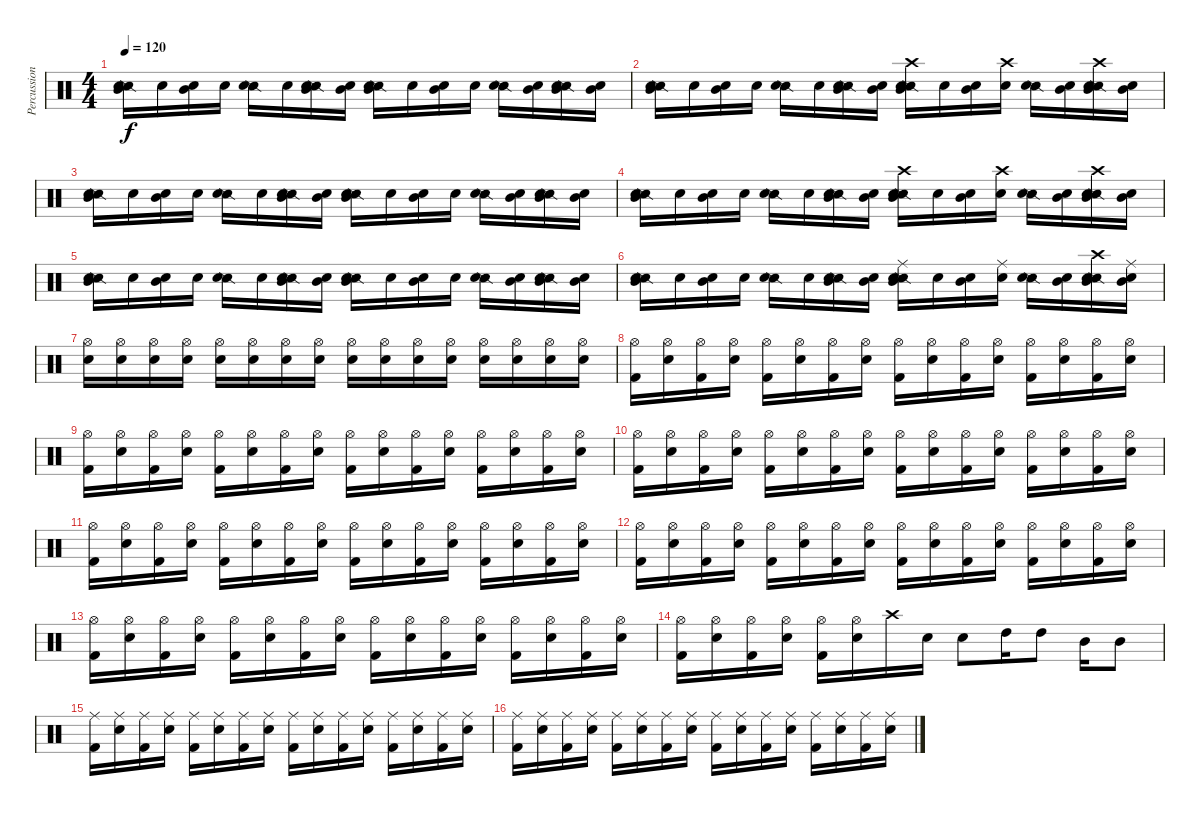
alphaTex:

\track ("Percussion" "Percussion") {instrument percussion}
\staff {score}
\articulation defaults
\ts (4 4)
\tempo 120
\clef neutral
\ks c
("Mid Tom (hit)" "Snare (side stick) 2" "Snare (hit) 2").16{dy f} "Snare (hit) 2".16 ("Mid Tom (hit)" "Snare (hit) 2").16 "Snare (hit) 2".16 ("Snare (side stick) 2" "Snare (hit) 2").16 "Snare (hit) 2".16 ("Mid Tom (hit)" "Snare (side stick) 2" "Snare (hit) 2").16 ("Mid Tom (hit)" "Snare (hit) 2").16 ("Mid Tom (hit)" "Snare (side stick) 2" "Snare (hit) 2").16 "Snare (hit) 2".16 ("Mid Tom (hit)" "Snare (hit) 2").16 "Snare (hit) 2".16 ("Snare (side stick) 2" "Snare (hit) 2").16 ("Mid Tom (hit)" "Snare (hit) 2").16 ("Mid Tom (hit)" "Snare (side stick) 2" "Snare (hit) 2").16 ("Mid Tom (hit)" "Snare (hit) 2").16 |
("Mid Tom (hit)" "Snare (side stick) 2" "Snare (hit) 2").16 "Snare (hit) 2".16 ("Mid Tom (hit)" "Snare (hit) 2").16 "Snare (hit) 2".16 ("Snare (side stick) 2" "Snare (hit) 2").16 "Snare (hit) 2".16 ("Mid Tom (hit)" "Snare (side stick) 2" "Snare (hit) 2").16 ("Mid Tom (hit)" "Snare (hit) 2").16 ("Mid Tom (hit)" "Crash high (hit)" "Snare (side stick) 2" "Snare (hit) 2").16 "Snare (hit) 2".16 ("Mid Tom (hit)" "Snare (hit) 2").16 ("Crash high (hit)" "Snare (hit) 2").16 ("Snare (side stick) 2" "Snare (hit) 2").16 ("Mid Tom (hit)" "Snare (hit) 2").16 ("Mid Tom (hit)" "Crash high (hit)" "Snare (side stick) 2" "Snare (hit) 2").16 ("Mid Tom (hit)" "Snare (hit) 2").16 |
("Mid Tom (hit)" "Snare (side stick) 2" "Snare (hit) 2").16 "Snare (hit) 2".16 ("Mid Tom (hit)" "Snare (hit) 2").16 "Snare (hit) 2".16 ("Snare (side stick) 2" "Snare (hit) 2").16 "Snare (hit) 2".16 ("Mid Tom (hit)" "Snare (side stick) 2" "Snare (hit) 2").16 ("Mid Tom (hit)" "Snare (hit) 2").16 ("Mid Tom (hit)" "Snare (side stick) 2" "Snare (hit) 2").16 "Snare (hit) 2".16 ("Mid Tom (hit)" "Snare (hit) 2").16 "Snare (hit) 2".16 ("Snare (side stick) 2" "Snare (hit) 2").16 ("Mid Tom (hit)" "Snare (hit) 2").16 ("Mid Tom (hit)" "Snare (side stick) 2" "Snare (hit) 2").16 ("Mid Tom (hit)" "Snare (hit) 2").16 |
("Mid Tom (hit)" "Snare (side stick) 2" "Snare (hit) 2").16 "Snare (hit) 2".16 ("Mid Tom (hit)" "Snare (hit) 2").16 "Snare (hit) 2".16 ("Snare (side stick) 2" "Snare (hit) 2").16 "Snare (hit) 2".16 ("Mid Tom (hit)" "Snare (side stick) 2" "Snare (hit) 2").16 ("Mid Tom (hit)" "Snare (hit) 2").16 ("Mid Tom (hit)" "Crash high (hit)" "Snare (side stick) 2" "Snare (hit) 2").16 "Snare (hit) 2".16 ("Mid Tom (hit)" "Snare (hit) 2").16 ("Crash high (hit)" "Snare (hit) 2").16 ("Snare (side stick) 2" "Snare (hit) 2").16 ("Mid Tom (hit)" "Snare (hit) 2").16 ("Mid Tom (hit)" "Crash high (hit)" "Snare (side stick) 2" "Snare (hit) 2").16 ("Mid Tom (hit)" "Snare (hit) 2").16 |
("Mid Tom (hit)" "Snare (side stick) 2" "Snare (hit) 2").16 "Snare (hit) 2".16 ("Mid Tom (hit)" "Snare (hit) 2").16 "Snare (hit) 2".16 ("Snare (side stick) 2" "Snare (hit) 2").16 "Snare (hit) 2".16 ("Mid Tom (hit)" "Snare (side stick) 2" "Snare (hit) 2").16 ("Mid Tom (hit)" "Snare (hit) 2").16 ("Mid Tom (hit)" "Snare (side stick) 2" "Snare (hit) 2").16 "Snare (hit) 2".16 ("Mid Tom (hit)" "Snare (hit) 2").16 "Snare (hit) 2".16 ("Snare (side stick) 2" "Snare (hit) 2").16 ("Mid Tom (hit)" "Snare (hit) 2").16 ("Mid Tom (hit)" "Snare (side stick) 2" "Snare (hit) 2").16 ("Mid Tom (hit)" "Snare (hit) 2").16 |
("Mid Tom (hit)" "Snare (side stick) 2" "Snare (hit) 2").16 "Snare (hit) 2".16 ("Mid Tom (hit)" "Snare (hit) 2").16 "Snare (hit) 2".16 ("Snare (side stick) 2" "Snare (hit) 2").16 "Snare (hit) 2".16 ("Mid Tom (hit)" "Snare (side stick) 2" "Snare (hit) 2").16 ("Mid Tom (hit)" "Snare (hit) 2").16 ("Mid Tom (hit)" "Ride (middle)" "Snare (side stick) 2" "Snare (hit) 2").16 "Snare (hit) 2".16 ("Mid Tom (hit)" "Snare (hit) 2").16 ("Ride (middle)" "Snare (hit) 2").16 ("Snare (side stick) 2" "Snare (hit) 2").16 ("Mid Tom (hit)" "Snare (hit) 2").16 ("Mid Tom (hit)" "Crash high (hit)" "Snare (side stick) 2" "Snare (hit) 2").16 ("Mid Tom (hit)" "Ride (middle)" "Snare (hit) 2").16 |
("Hi-Hat (open)" "Snare (hit) 2").16 ("Hi-Hat (open)" "Snare (hit) 2").16 ("Hi-Hat (open)" "Snare (hit) 2").16 ("Hi-Hat (open)" "Snare (hit) 2").16 ("Hi-Hat (open)" "Snare (hit) 2").16 ("Hi-Hat (open)" "Snare (hit) 2").16 ("Hi-Hat (open)" "Snare (hit) 2").16 ("Hi-Hat (open)" "Snare (hit) 2").16 ("Hi-Hat (open)" "Snare (hit) 2").16 ("Hi-Hat (open)" "Snare (hit) 2").16 ("Hi-Hat (open)" "Snare (hit) 2").16 ("Hi-Hat (open)" "Snare (hit) 2").16 ("Hi-Hat (open)" "Snare (hit) 2").16 ("Hi-Hat (open)" "Snare (hit) 2").16 ("Hi-Hat (open)" "Snare (hit) 2").16 ("Hi-Hat (open)" "Snare (hit) 2").16 |
("Hi-Hat (open)" "Kick (hit) 2").16 ("Hi-Hat (open)" "Electric Snare (hit)").16 ("Hi-Hat (open)" "Kick (hit) 2").16 ("Hi-Hat (open)" "Electric Snare (hit)").16 ("Hi-Hat (open)" "Kick (hit) 2").16 ("Hi-Hat (open)" "Electric Snare (hit)").16 ("Hi-Hat (open)" "Kick (hit) 2").16 ("Hi-Hat (open)" "Electric Snare (hit)").16 ("Hi-Hat (open)" "Kick (hit) 2").16 ("Hi-Hat (open)" "Electric Snare (hit)").16 ("Hi-Hat (open)" "Kick (hit) 2").16 ("Hi-Hat (open)" "Electric Snare (hit)").16 ("Hi-Hat (open)" "Kick (hit) 2").16 ("Hi-Hat (open)" "Electric Snare (hit)").16 ("Hi-Hat (open)" "Kick (hit) 2").16 ("Hi-Hat (open)" "Electric Snare (hit)").16 |
("Hi-Hat (open)" "Kick (hit) 2").16 ("Hi-Hat (open)" "Electric Snare (hit)").16 ("Hi-Hat (open)" "Kick (hit) 2").16 ("Hi-Hat (open)" "Electric Snare (hit)").16 ("Hi-Hat (open)" "Kick (hit) 2").16 ("Hi-Hat (open)" "Electric Snare (hit)").16 ("Hi-Hat (open)" "Kick (hit) 2").16 ("Hi-Hat (open)" "Electric Snare (hit)").16 ("Hi-Hat (open)" "Kick (hit) 2").16 ("Hi-Hat (open)" "Electric Snare (hit)").16 ("Hi-Hat (open)" "Kick (hit) 2").16 ("Hi-Hat (open)" "Electric Snare (hit)").16 ("Hi-Hat (open)" "Kick (hit) 2").16 ("Hi-Hat (open)" "Electric Snare (hit)").16 ("Hi-Hat (open)" "Kick (hit) 2").16 ("Hi-Hat (open)" "Electric Snare (hit)").16 |
("Hi-Hat (open)" "Kick (hit) 2").16 ("Hi-Hat (open)" "Electric Snare (hit)").16 ("Hi-Hat (open)" "Kick (hit) 2").16 ("Hi-Hat (open)" "Electric Snare (hit)").16 ("Hi-Hat (open)" "Kick (hit) 2").16 ("Hi-Hat (open)" "Electric Snare (hit)").16 ("Hi-Hat (open)" "Kick (hit) 2").16 ("Hi-Hat (open)" "Electric Snare (hit)").16 ("Hi-Hat (open)" "Kick (hit) 2").16 ("Hi-Hat (open)" "Electric Snare (hit)").16 ("Hi-Hat (open)" "Kick (hit) 2").16 ("Hi-Hat (open)" "Electric Snare (hit)").16 ("Hi-Hat (open)" "Kick (hit) 2").16 ("Hi-Hat (open)" "Electric Snare (hit)").16 ("Hi-Hat (open)" "Kick (hit) 2").16 ("Hi-Hat (open)" "Electric Snare (hit)").16 |
("Hi-Hat (open)" "Kick (hit) 2").16 ("Hi-Hat (open)" "Electric Snare (hit)").16 ("Hi-Hat (open)" "Kick (hit) 2").16 ("Hi-Hat (open)" "Electric Snare (hit)").16 ("Hi-Hat (open)" "Kick (hit) 2").16 ("Hi-Hat (open)" "Electric Snare (hit)").16 ("Hi-Hat (open)" "Kick (hit) 2").16 ("Hi-Hat (open)" "Electric Snare (hit)").16 ("Hi-Hat (open)" "Kick (hit) 2").16 ("Hi-Hat (open)" "Electric Snare (hit)").16 ("Hi-Hat (open)" "Kick (hit) 2").16 ("Hi-Hat (open)" "Electric Snare (hit)").16 ("Hi-Hat (open)" "Kick (hit) 2").16 ("Hi-Hat (open)" "Electric Snare (hit)").16 ("Hi-Hat (open)" "Kick (hit) 2").16 ("Hi-Hat (open)" "Electric Snare (hit)").16 |
("Hi-Hat (open)" "Kick (hit) 2").16 ("Hi-Hat (open)" "Electric Snare (hit)").16 ("Hi-Hat (open)" "Kick (hit) 2").16 ("Hi-Hat (open)" "Electric Snare (hit)").16 ("Hi-Hat (open)" "Kick (hit) 2").16 ("Hi-Hat (open)" "Electric Snare (hit)").16 ("Hi-Hat (open)" "Kick (hit) 2").16 ("Hi-Hat (open)" "Electric Snare (hit)").16 ("Hi-Hat (open)" "Kick (hit) 2").16 ("Hi-Hat (open)" "Electric Snare (hit)").16 ("Hi-Hat (open)" "Kick (hit) 2").16 ("Hi-Hat (open)" "Electric Snare (hit)").16 ("Hi-Hat (open)" "Kick (hit) 2").16 ("Hi-Hat (open)" "Electric Snare (hit)").16 ("Hi-Hat (open)" "Kick (hit) 2").16 ("Hi-Hat (open)" "Electric Snare (hit)").16 |
("Hi-Hat (open)" "Kick (hit) 2").16 ("Hi-Hat (open)" "Electric Snare (hit)").16 ("Hi-Hat (open)" "Kick (hit) 2").16 ("Hi-Hat (open)" "Electric Snare (hit)").16 ("Hi-Hat (open)" "Kick (hit) 2").16 ("Hi-Hat (open)" "Electric Snare (hit)").16 ("Hi-Hat (open)" "Kick (hit) 2").16 ("Hi-Hat (open)" "Electric Snare (hit)").16 ("Hi-Hat (open)" "Kick (hit) 2").16 ("Hi-Hat (open)" "Electric Snare (hit)").16 ("Hi-Hat (open)" "Kick (hit) 2").16 ("Hi-Hat (open)" "Electric Snare (hit)").16 ("Hi-Hat (open)" "Kick (hit) 2").16 ("Hi-Hat (open)" "Electric Snare (hit)").16 ("Hi-Hat (open)" "Kick (hit) 2").16 ("Hi-Hat (open)" "Electric Snare (hit)").16 |
("Hi-Hat (open)" "Kick (hit) 2").16 ("Hi-Hat (open)" "Electric Snare (hit)").16 ("Hi-Hat (open)" "Kick (hit) 2").16 ("Hi-Hat (open)" "Electric Snare (hit)").16 ("Hi-Hat (open)" "Kick (hit) 2").16 ("Hi-Hat (open)" "Electric Snare (hit)").16 "Crash high (hit)".16 "Electric Snare (hit)".16 "Electric Snare (hit)".8 "High Tom (hit)".16 "High Tom (hit)".8 "Mid Tom (hit)".16 "Mid Tom (hit)".8 |
("Ride (middle)" "Kick (hit) 2").16 ("Ride (middle)" "Electric Snare (hit)").16 ("Ride (middle)" "Kick (hit) 2").16 ("Ride (middle)" "Electric Snare (hit)").16 ("Ride (middle)" "Kick (hit) 2").16 ("Ride (middle)" "Electric Snare (hit)").16 ("Ride (middle)" "Kick (hit) 2").16 ("Ride (middle)" "Electric Snare (hit)").16 ("Ride (middle)" "Kick (hit) 2").16 ("Ride (middle)" "Electric Snare (hit)").16 ("Ride (middle)" "Kick (hit) 2").16 ("Ride (middle)" "Electric Snare (hit)").16 ("Ride (middle)" "Kick (hit) 2").16 ("Ride (middle)" "Electric Snare (hit)").16 ("Ride (middle)" "Kick (hit) 2").16 ("Ride (middle)" "Electric Snare (hit)").16 |
("Ride (middle)" "Kick (hit) 2").16 ("Ride (middle)" "Electric Snare (hit)").16 ("Ride (middle)" "Kick (hit) 2").16 ("Ride (middle)" "Electric Snare (hit)").16 ("Ride (middle)" "Kick (hit) 2").16 ("Ride (middle)" "Electric Snare (hit)").16 ("Ride (middle)" "Kick (hit) 2").16 ("Ride (middle)" "Electric Snare (hit)").16 ("Ride (middle)" "Kick (hit) 2").16 ("Ride (middle)" "Electric Snare (hit)").16 ("Ride (middle)" "Kick (hit) 2").16 ("Ride (middle)" "Electric Snare (hit)").16 ("Ride (middle)" "Kick (hit) 2").16 ("Ride (middle)" "Electric Snare (hit)").16 ("Ride (middle)" "Kick (hit) 2").16 ("Ride (middle)" "Electric Snare (hit)").16
